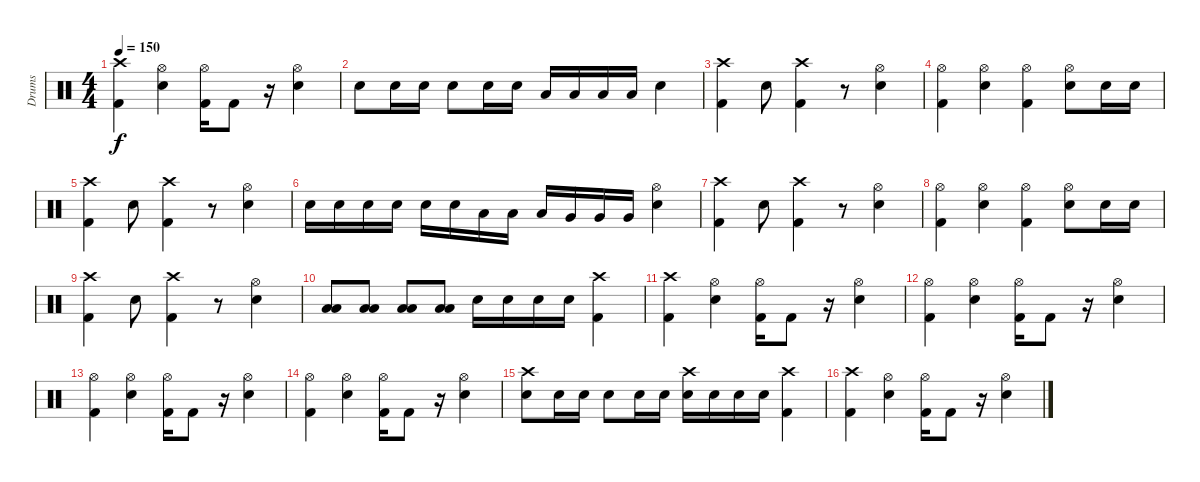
\track ("Drums" "Drums") {instrument percussion}
\staff {score}
\articulation defaults
\ts (4 4)
\tempo 150
\clef neutral
\ks c
("Crash high (hit)" "Kick (hit) 2").4{dy f} ("Hi-Hat (open)" "Snare (hit) 2").4 ("Hi-Hat (open)" "Kick (hit) 2").16 "Kick (hit) 2".8 r.16 ("Hi-Hat (open)" "Snare (hit) 2").4 |
"Snare (hit) 2".8 "Snare (hit) 2".16 "Snare (hit) 2".16 "Snare (hit) 2".8 "Snare (hit) 2".16 "Snare (hit) 2".16 "Low Tom (hit)".16 "Low Tom (hit)".16 "Low Tom (hit)".16 "Low Tom (hit)".16 "Snare (hit) 2".4 |
("Crash high (hit)" "Kick (hit) 2").4 "Snare (hit) 2".8 ("Crash high (hit)" "Kick (hit) 2").4 r.8 ("Hi-Hat (open)" "Snare (hit) 2").4 |
("Hi-Hat (open)" "Kick (hit) 2").4 ("Hi-Hat (open)" "Snare (hit) 2").4 ("Hi-Hat (open)" "Kick (hit) 2").4 ("Hi-Hat (open)" "Snare (hit) 2").8 "Snare (hit) 2".16 "Snare (hit) 2".16 |
("Crash high (hit)" "Kick (hit) 2").4 "Snare (hit) 2".8 ("Crash high (hit)" "Kick (hit) 2").4 r.8 ("Hi-Hat (open)" "Snare (hit) 2").4 |
"Snare (hit) 2".16 "Snare (hit) 2".16 "Snare (hit) 2".16 "Snare (hit) 2".16 "Snare (hit) 2".16 "Snare (hit) 2".16 "Low Tom (hit)".16 "Low Tom (hit)".16 "Low Tom (hit)".16 "Very Low Tom (hit)".16 "Very Low Tom (hit)".16 "Very Low Tom (hit)".16 ("Hi-Hat (open)" "Snare (hit) 2").4 |
("Crash high (hit)" "Kick (hit) 2").4 "Snare (hit) 2".8 ("Crash high (hit)" "Kick (hit) 2").4 r.8 ("Hi-Hat (open)" "Snare (hit) 2").4 |
("Hi-Hat (open)" "Kick (hit) 2").4 ("Hi-Hat (open)" "Snare (hit) 2").4 ("Hi-Hat (open)" "Kick (hit) 2").4 ("Hi-Hat (open)" "Snare (hit) 2").8 "Snare (hit) 2".16 "Snare (hit) 2".16 |
("Crash high (hit)" "Kick (hit) 2").4 "Snare (hit) 2".8 ("Crash high (hit)" "Kick (hit) 2").4 r.8 ("Hi-Hat (open)" "Snare (hit) 2").4 |
("Low Tom (hit)" "Low Tom (hit)").8 ("Low Tom (hit)" "Low Tom (hit)").8 ("Low Tom (hit)" "Low Tom (hit)").8 ("Low Tom (hit)" "Low Tom (hit)").8 "Snare (hit) 2".16 "Snare (hit) 2".16 "Snare (hit) 2".16 "Snare (hit) 2".16 ("Crash high (hit)" "Kick (hit) 2").4 |
("Crash high (hit)" "Kick (hit) 2").4 ("Hi-Hat (open)" "Snare (hit) 2").4 ("Hi-Hat (open)" "Kick (hit) 2").16 "Kick (hit) 2".8 r.16 ("Hi-Hat (open)" "Snare (hit) 2").4 |
("Hi-Hat (open)" "Kick (hit) 2").4 ("Hi-Hat (open)" "Snare (hit) 2").4 ("Hi-Hat (open)" "Kick (hit) 2").16 "Kick (hit) 2".8 r.16 ("Hi-Hat (open)" "Snare (hit) 2").4 |
("Hi-Hat (open)" "Kick (hit) 2").4 ("Hi-Hat (open)" "Snare (hit) 2").4 ("Hi-Hat (open)" "Kick (hit) 2").16 "Kick (hit) 2".8 r.16 ("Hi-Hat (open)" "Snare (hit) 2").4 |
("Hi-Hat (open)" "Kick (hit) 2").4 ("Hi-Hat (open)" "Snare (hit) 2").4 ("Hi-Hat (open)" "Kick (hit) 2").16 "Kick (hit) 2".8 r.16 ("Hi-Hat (open)" "Snare (hit) 2").4 |
("Crash high (hit)" "Snare (hit) 2").8 "Snare (hit) 2".16 "Snare (hit) 2".16 "Snare (hit) 2".8 "Snare (hit) 2".16 "Snare (hit) 2".16 ("Crash high (hit)" "Snare (hit) 2").16 "Snare (hit) 2".16 "Snare (hit) 2".16 "Snare (hit) 2".16 ("Crash high (hit)" "Kick (hit) 2").4 |
("Crash high (hit)" "Kick (hit) 2").4 ("Hi-Hat (open)" "Snare (hit) 2").4 ("Hi-Hat (open)" "Kick (hit) 2").16 "Kick (hit) 2".8 r.16 ("Hi-Hat (open)" "Snare (hit) 2").4
